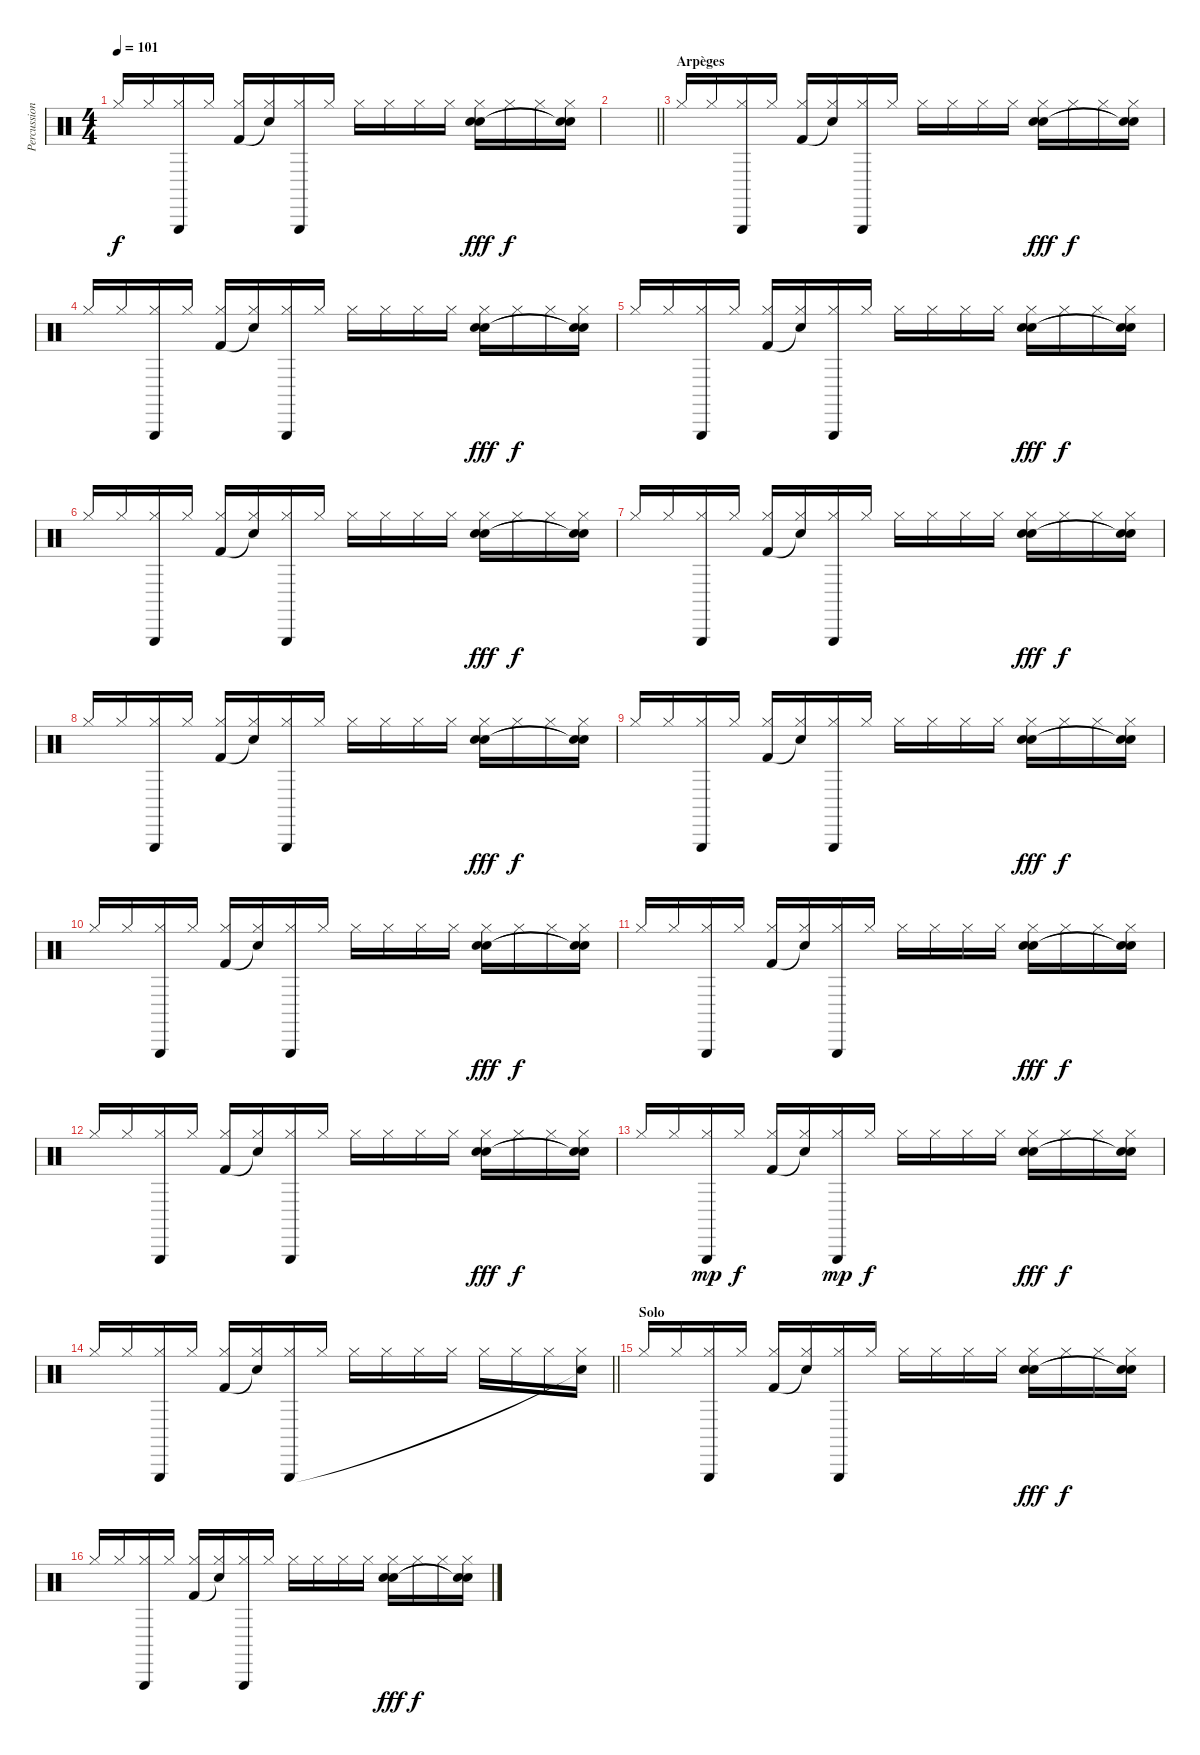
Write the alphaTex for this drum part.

\track ("Percussions" "Percussion") {instrument percussion}
\staff {score}
\articulation defaults
\ts (4 4)
\tempo 101
\clef neutral
\ks c "Hi-Hat (closed)".16{dy f} "Hi-Hat (closed)".16
("Hi-Hat (closed)" "Triangle (hit)").16 "Hi-Hat (closed)".16 ("Hi-Hat (closed)" "Kick (hit) 2").16 ("Hi-Hat (closed)" "Snare (hit)"{t}).16 ("Hi-Hat (closed)" "Triangle (hit)").16 "Hi-Hat (closed)".16 "Hi-Hat (closed)".16 "Hi-Hat (closed)".16 "Hi-Hat (closed)".16 "Hi-Hat (closed)".16 ("Hi-Hat (closed)" "Hand Clap (hit)" "Snare (hit) 2").16{dy fff} "Hi-Hat (closed)".16{dy f} "Hi-Hat (closed)".16 ("Hi-Hat (closed)" "Snare (hit)"{t} "Snare (hit)"{t}).16 |
\barLineRight lightlight
|
\section ("" "Arpèges")
"Hi-Hat (closed)".16 "Hi-Hat (closed)".16 ("Hi-Hat (closed)" "Triangle (hit)").16 "Hi-Hat (closed)".16 ("Hi-Hat (closed)" "Kick (hit) 2").16 ("Hi-Hat (closed)" "Snare (hit)"{t}).16 ("Hi-Hat (closed)" "Triangle (hit)").16 "Hi-Hat (closed)".16 "Hi-Hat (closed)".16 "Hi-Hat (closed)".16 "Hi-Hat (closed)".16 "Hi-Hat (closed)".16 ("Hi-Hat (closed)" "Hand Clap (hit)" "Snare (hit) 2").16{dy fff} "Hi-Hat (closed)".16{dy f} "Hi-Hat (closed)".16 ("Hi-Hat (closed)" "Snare (hit)"{t} "Snare (hit)"{t}).16 |
"Hi-Hat (closed)".16 "Hi-Hat (closed)".16 ("Hi-Hat (closed)" "Triangle (hit)").16 "Hi-Hat (closed)".16 ("Hi-Hat (closed)" "Kick (hit) 2").16 ("Hi-Hat (closed)" "Snare (hit)"{t}).16 ("Hi-Hat (closed)" "Triangle (hit)").16 "Hi-Hat (closed)".16 "Hi-Hat (closed)".16 "Hi-Hat (closed)".16 "Hi-Hat (closed)".16 "Hi-Hat (closed)".16 ("Hi-Hat (closed)" "Hand Clap (hit)" "Snare (hit) 2").16{dy fff} "Hi-Hat (closed)".16{dy f} "Hi-Hat (closed)".16 ("Hi-Hat (closed)" "Snare (hit)"{t} "Snare (hit)"{t}).16 |
"Hi-Hat (closed)".16 "Hi-Hat (closed)".16 ("Hi-Hat (closed)" "Triangle (hit)").16 "Hi-Hat (closed)".16 ("Hi-Hat (closed)" "Kick (hit) 2").16 ("Hi-Hat (closed)" "Snare (hit)"{t}).16 ("Hi-Hat (closed)" "Triangle (hit)").16 "Hi-Hat (closed)".16 "Hi-Hat (closed)".16 "Hi-Hat (closed)".16 "Hi-Hat (closed)".16 "Hi-Hat (closed)".16 ("Hi-Hat (closed)" "Hand Clap (hit)" "Snare (hit) 2").16{dy fff} "Hi-Hat (closed)".16{dy f} "Hi-Hat (closed)".16 ("Hi-Hat (closed)" "Snare (hit)"{t} "Snare (hit)"{t}).16 |
"Hi-Hat (closed)".16 "Hi-Hat (closed)".16 ("Hi-Hat (closed)" "Triangle (hit)").16 "Hi-Hat (closed)".16 ("Hi-Hat (closed)" "Kick (hit) 2").16 ("Hi-Hat (closed)" "Snare (hit)"{t}).16 ("Hi-Hat (closed)" "Triangle (hit)").16 "Hi-Hat (closed)".16 "Hi-Hat (closed)".16 "Hi-Hat (closed)".16 "Hi-Hat (closed)".16 "Hi-Hat (closed)".16 ("Hi-Hat (closed)" "Hand Clap (hit)" "Snare (hit) 2").16{dy fff} "Hi-Hat (closed)".16{dy f} "Hi-Hat (closed)".16 ("Hi-Hat (closed)" "Snare (hit)"{t} "Snare (hit)"{t}).16 |
"Hi-Hat (closed)".16 "Hi-Hat (closed)".16 ("Hi-Hat (closed)" "Triangle (hit)").16 "Hi-Hat (closed)".16 ("Hi-Hat (closed)" "Kick (hit) 2").16 ("Hi-Hat (closed)" "Snare (hit)"{t}).16 ("Hi-Hat (closed)" "Triangle (hit)").16 "Hi-Hat (closed)".16 "Hi-Hat (closed)".16 "Hi-Hat (closed)".16 "Hi-Hat (closed)".16 "Hi-Hat (closed)".16 ("Hi-Hat (closed)" "Hand Clap (hit)" "Snare (hit) 2").16{dy fff} "Hi-Hat (closed)".16{dy f} "Hi-Hat (closed)".16 ("Hi-Hat (closed)" "Snare (hit)"{t} "Snare (hit)"{t}).16 |
"Hi-Hat (closed)".16 "Hi-Hat (closed)".16 ("Hi-Hat (closed)" "Triangle (hit)").16 "Hi-Hat (closed)".16 ("Hi-Hat (closed)" "Kick (hit) 2").16 ("Hi-Hat (closed)" "Snare (hit)"{t}).16 ("Hi-Hat (closed)" "Triangle (hit)").16 "Hi-Hat (closed)".16 "Hi-Hat (closed)".16 "Hi-Hat (closed)".16 "Hi-Hat (closed)".16 "Hi-Hat (closed)".16 ("Hi-Hat (closed)" "Hand Clap (hit)" "Snare (hit) 2").16{dy fff} "Hi-Hat (closed)".16{dy f} "Hi-Hat (closed)".16 ("Hi-Hat (closed)" "Snare (hit)"{t} "Snare (hit)"{t}).16 |
"Hi-Hat (closed)".16 "Hi-Hat (closed)".16 ("Hi-Hat (closed)" "Triangle (hit)").16 "Hi-Hat (closed)".16 ("Hi-Hat (closed)" "Kick (hit) 2").16 ("Hi-Hat (closed)" "Snare (hit)"{t}).16 ("Hi-Hat (closed)" "Triangle (hit)").16 "Hi-Hat (closed)".16 "Hi-Hat (closed)".16 "Hi-Hat (closed)".16 "Hi-Hat (closed)".16 "Hi-Hat (closed)".16 ("Hi-Hat (closed)" "Hand Clap (hit)" "Snare (hit) 2").16{dy fff} "Hi-Hat (closed)".16{dy f} "Hi-Hat (closed)".16 ("Hi-Hat (closed)" "Snare (hit)"{t} "Snare (hit)"{t}).16 |
"Hi-Hat (closed)".16 "Hi-Hat (closed)".16 ("Hi-Hat (closed)" "Triangle (hit)").16 "Hi-Hat (closed)".16 ("Hi-Hat (closed)" "Kick (hit) 2").16 ("Hi-Hat (closed)" "Snare (hit)"{t}).16 ("Hi-Hat (closed)" "Triangle (hit)").16 "Hi-Hat (closed)".16 "Hi-Hat (closed)".16 "Hi-Hat (closed)".16 "Hi-Hat (closed)".16 "Hi-Hat (closed)".16 ("Hi-Hat (closed)" "Hand Clap (hit)" "Snare (hit) 2").16{dy fff} "Hi-Hat (closed)".16{dy f} "Hi-Hat (closed)".16 ("Hi-Hat (closed)" "Snare (hit)"{t} "Snare (hit)"{t}).16 |
"Hi-Hat (closed)".16 "Hi-Hat (closed)".16 ("Hi-Hat (closed)" "Triangle (hit)").16 "Hi-Hat (closed)".16 ("Hi-Hat (closed)" "Kick (hit) 2").16 ("Hi-Hat (closed)" "Snare (hit)"{t}).16 ("Hi-Hat (closed)" "Triangle (hit)").16 "Hi-Hat (closed)".16 "Hi-Hat (closed)".16 "Hi-Hat (closed)".16 "Hi-Hat (closed)".16 "Hi-Hat (closed)".16 ("Hi-Hat (closed)" "Hand Clap (hit)" "Snare (hit) 2").16{dy fff} "Hi-Hat (closed)".16{dy f} "Hi-Hat (closed)".16 ("Hi-Hat (closed)" "Snare (hit)"{t} "Snare (hit)"{t}).16 |
"Hi-Hat (closed)".16 "Hi-Hat (closed)".16 ("Hi-Hat (closed)" "Triangle (hit)").16 "Hi-Hat (closed)".16 ("Hi-Hat (closed)" "Kick (hit) 2").16 ("Hi-Hat (closed)" "Snare (hit)"{t}).16 ("Hi-Hat (closed)" "Triangle (hit)").16 "Hi-Hat (closed)".16 "Hi-Hat (closed)".16 "Hi-Hat (closed)".16 "Hi-Hat (closed)".16 "Hi-Hat (closed)".16 ("Hi-Hat (closed)" "Hand Clap (hit)" "Snare (hit) 2").16{dy fff} "Hi-Hat (closed)".16{dy f} "Hi-Hat (closed)".16 ("Hi-Hat (closed)" "Snare (hit)"{t} "Snare (hit)"{t}).16 |
"Hi-Hat (closed)".16 "Hi-Hat (closed)".16 ("Hi-Hat (closed)" "Triangle (hit)").16{dy mp} "Hi-Hat (closed)".16{dy f} ("Hi-Hat (closed)" "Kick (hit) 2").16 ("Hi-Hat (closed)" "Snare (hit)"{t}).16 ("Hi-Hat (closed)" "Triangle (hit)").16{dy mp} "Hi-Hat (closed)".16{dy f} "Hi-Hat (closed)".16 "Hi-Hat (closed)".16 "Hi-Hat (closed)".16 "Hi-Hat (closed)".16 ("Hi-Hat (closed)" "Hand Clap (hit)" "Snare (hit) 2").16{dy fff} "Hi-Hat (closed)".16{dy f} "Hi-Hat (closed)".16 ("Hi-Hat (closed)" "Snare (hit)"{t} "Snare (hit)"{t}).16 |
\barLineRight lightlight "Hi-Hat (closed)".16 "Hi-Hat (closed)".16
("Hi-Hat (closed)" "Triangle (hit)").16 "Hi-Hat (closed)".16 ("Hi-Hat (closed)" "Kick (hit) 2").16 ("Hi-Hat (closed)" "Snare (hit)"{t}).16 ("Hi-Hat (closed)" "Triangle (hit)").16 "Hi-Hat (closed)".16 "Hi-Hat (closed)".16 "Hi-Hat (closed)".16 "Hi-Hat (closed)".16 "Hi-Hat (closed)".16 "Hi-Hat (closed)".16 "Hi-Hat (closed)".16 "Hi-Hat (closed)".16 ("Hi-Hat (closed)" "Snare (hit)"{t}).16 |
\section ("" "Solo")
"Hi-Hat (closed)".16 "Hi-Hat (closed)".16 ("Hi-Hat (closed)" "Triangle (hit)").16 "Hi-Hat (closed)".16 ("Hi-Hat (closed)" "Kick (hit) 2").16 ("Hi-Hat (closed)" "Snare (hit)"{t}).16 ("Hi-Hat (closed)" "Triangle (hit)").16 "Hi-Hat (closed)".16 "Hi-Hat (closed)".16 "Hi-Hat (closed)".16 "Hi-Hat (closed)".16 "Hi-Hat (closed)".16 ("Hi-Hat (closed)" "Hand Clap (hit)" "Snare (hit) 2").16{dy fff} "Hi-Hat (closed)".16{dy f} "Hi-Hat (closed)".16 ("Hi-Hat (closed)" "Snare (hit)"{t} "Snare (hit)"{t}).16 |
"Hi-Hat (closed)".16 "Hi-Hat (closed)".16 ("Hi-Hat (closed)" "Triangle (hit)").16 "Hi-Hat (closed)".16 ("Hi-Hat (closed)" "Kick (hit) 2").16 ("Hi-Hat (closed)" "Snare (hit)"{t}).16 ("Hi-Hat (closed)" "Triangle (hit)").16 "Hi-Hat (closed)".16 "Hi-Hat (closed)".16 "Hi-Hat (closed)".16 "Hi-Hat (closed)".16 "Hi-Hat (closed)".16 ("Hi-Hat (closed)" "Hand Clap (hit)" "Snare (hit) 2").16{dy fff} "Hi-Hat (closed)".16{dy f} "Hi-Hat (closed)".16 ("Hi-Hat (closed)" "Snare (hit)"{t} "Snare (hit)"{t}).16
